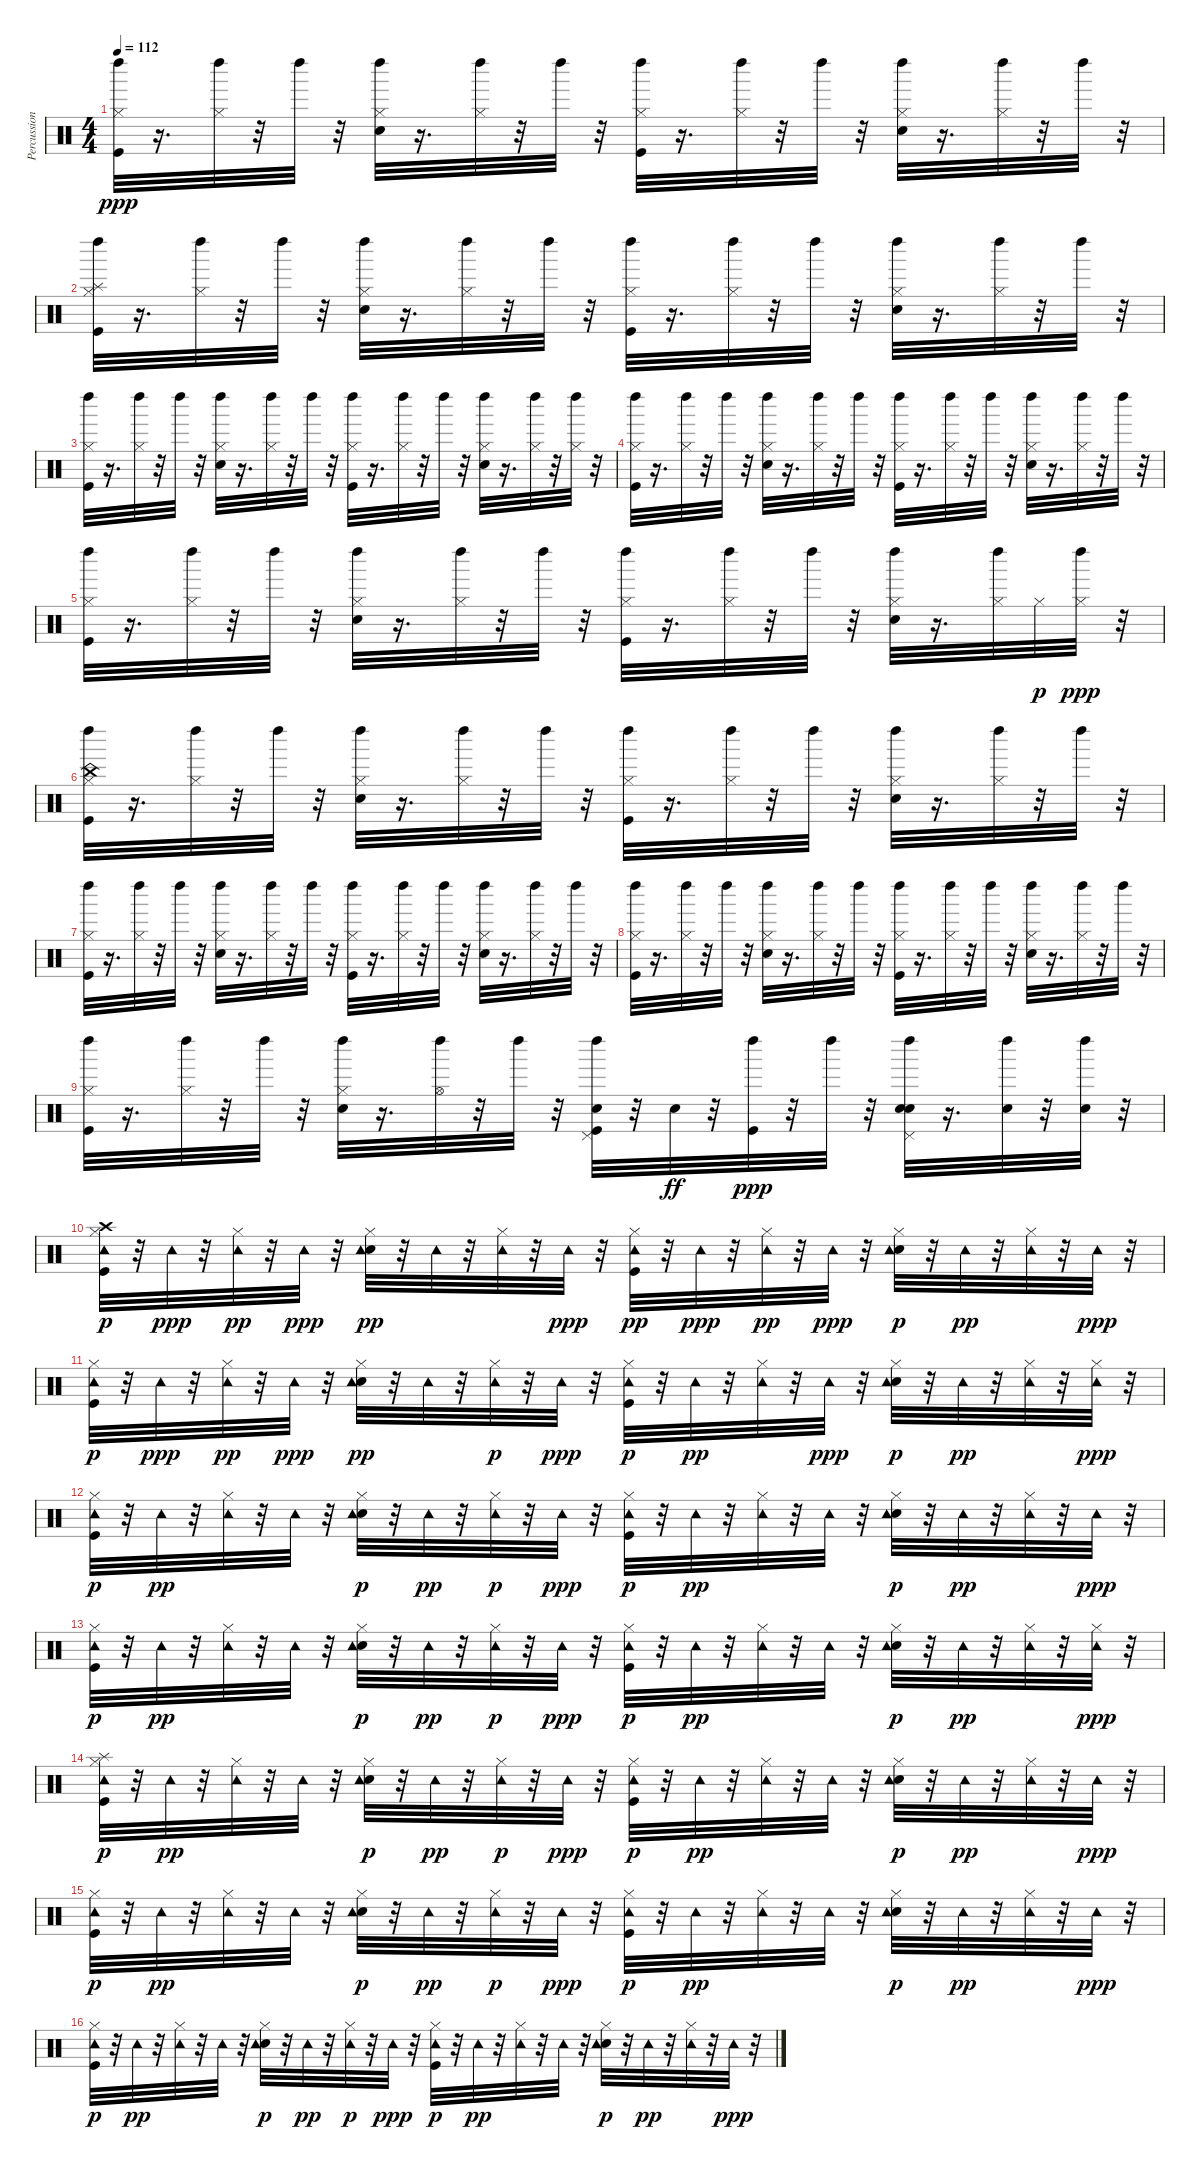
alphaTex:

\track ("Percussioni" "Percussion") {instrument percussion}
\staff {score}
\articulation defaults
\ts (4 4)
\tempo 112
\clef neutral
\ks c
("Kick (hit)" "Hi-Hat (closed)" "Left Maraca (hit)").32{dy ppp} r.16{d} ("Hi-Hat (closed)" "Left Maraca (hit)").32 r.32 "Left Maraca (hit)".32 r.32 ("Electric Snare (hit)" "Hi-Hat (closed)" "Left Maraca (hit)").32 r.16{d} ("Hi-Hat (closed)" "Left Maraca (hit)").32 r.32 "Left Maraca (hit)".32 r.32 ("Kick (hit)" "Hi-Hat (closed)" "Left Maraca (hit)").32 r.16{d} ("Hi-Hat (closed)" "Left Maraca (hit)").32 r.32 "Left Maraca (hit)".32 r.32 ("Electric Snare (hit)" "Hi-Hat (closed)" "Left Maraca (hit)").32 r.16{d} ("Hi-Hat (closed)" "Left Maraca (hit)").32 r.32 "Left Maraca (hit)".32 r.32 |
("Kick (hit)" "Hi-Hat (closed)" "Splash (hit)" "Left Maraca (hit)").32 r.16{d} ("Hi-Hat (closed)" "Left Maraca (hit)").32 r.32 "Left Maraca (hit)".32 r.32 ("Electric Snare (hit)" "Hi-Hat (closed)" "Left Maraca (hit)").32 r.16{d} ("Hi-Hat (closed)" "Left Maraca (hit)").32 r.32 "Left Maraca (hit)".32 r.32 ("Kick (hit)" "Hi-Hat (closed)" "Left Maraca (hit)").32 r.16{d} ("Hi-Hat (closed)" "Left Maraca (hit)").32 r.32 "Left Maraca (hit)".32 r.32 ("Electric Snare (hit)" "Hi-Hat (closed)" "Left Maraca (hit)").32 r.16{d} ("Hi-Hat (closed)" "Left Maraca (hit)").32 r.32 "Left Maraca (hit)".32 r.32 |
("Kick (hit)" "Hi-Hat (closed)" "Left Maraca (hit)").32 r.16{d} ("Hi-Hat (closed)" "Left Maraca (hit)").32 r.32 "Left Maraca (hit)".32 r.32 ("Electric Snare (hit)" "Hi-Hat (closed)" "Left Maraca (hit)").32 r.16{d} ("Hi-Hat (closed)" "Left Maraca (hit)").32 r.32 "Left Maraca (hit)".32 r.32 ("Kick (hit)" "Hi-Hat (closed)" "Left Maraca (hit)").32 r.16{d} ("Hi-Hat (closed)" "Left Maraca (hit)").32 r.32 "Left Maraca (hit)".32 r.32 ("Electric Snare (hit)" "Hi-Hat (closed)" "Left Maraca (hit)").32 r.16{d} ("Hi-Hat (closed)" "Left Maraca (hit)").32 r.32 ("Hi-Hat (closed)" "Left Maraca (hit)").32 r.32 |
("Kick (hit)" "Hi-Hat (closed)" "Left Maraca (hit)").32 r.16{d} ("Hi-Hat (closed)" "Left Maraca (hit)").32 r.32 "Left Maraca (hit)".32 r.32 ("Electric Snare (hit)" "Hi-Hat (closed)" "Left Maraca (hit)").32 r.16{d} ("Hi-Hat (closed)" "Left Maraca (hit)").32 r.32 "Left Maraca (hit)".32 r.32 ("Kick (hit)" "Hi-Hat (closed)" "Left Maraca (hit)").32 r.16{d} ("Hi-Hat (closed)" "Left Maraca (hit)").32 r.32 "Left Maraca (hit)".32 r.32 ("Electric Snare (hit)" "Hi-Hat (closed)" "Left Maraca (hit)").32 r.16{d} ("Hi-Hat (closed)" "Left Maraca (hit)").32 r.32 "Left Maraca (hit)".32 r.32 |
("Kick (hit)" "Hi-Hat (closed)" "Left Maraca (hit)").32 r.16{d} ("Hi-Hat (closed)" "Left Maraca (hit)").32 r.32 "Left Maraca (hit)".32 r.32 ("Electric Snare (hit)" "Hi-Hat (closed)" "Left Maraca (hit)").32 r.16{d} ("Hi-Hat (closed)" "Left Maraca (hit)").32 r.32 "Left Maraca (hit)".32 r.32 ("Kick (hit)" "Hi-Hat (closed)" "Left Maraca (hit)").32 r.16{d} ("Hi-Hat (closed)" "Left Maraca (hit)").32 r.32 "Left Maraca (hit)".32 r.32 ("Electric Snare (hit)" "Hi-Hat (closed)" "Left Maraca (hit)").32 r.16{d} ("Hi-Hat (closed)" "Left Maraca (hit)").32 "Hi-Hat (closed)".32{dy p} ("Hi-Hat (closed)" "Left Maraca (hit)").32{dy ppp} r.32 |
("Kick (hit)" "Hi-Hat (closed)" "China (hit)" "Left Maraca (hit)").32 r.16{d} ("Hi-Hat (closed)" "Left Maraca (hit)").32 r.32 "Left Maraca (hit)".32 r.32 ("Electric Snare (hit)" "Hi-Hat (closed)" "Left Maraca (hit)").32 r.16{d} ("Hi-Hat (closed)" "Left Maraca (hit)").32 r.32 "Left Maraca (hit)".32 r.32 ("Kick (hit)" "Hi-Hat (closed)" "Left Maraca (hit)").32 r.16{d} ("Hi-Hat (closed)" "Left Maraca (hit)").32 r.32 "Left Maraca (hit)".32 r.32 ("Electric Snare (hit)" "Hi-Hat (closed)" "Left Maraca (hit)").32 r.16{d} ("Hi-Hat (closed)" "Left Maraca (hit)").32 r.32 "Left Maraca (hit)".32 r.32 |
("Kick (hit)" "Hi-Hat (closed)" "Left Maraca (hit)").32 r.16{d} ("Hi-Hat (closed)" "Left Maraca (hit)").32 r.32 "Left Maraca (hit)".32 r.32 ("Electric Snare (hit)" "Hi-Hat (closed)" "Left Maraca (hit)").32 r.16{d} ("Hi-Hat (closed)" "Left Maraca (hit)").32 r.32 "Left Maraca (hit)".32 r.32 ("Kick (hit)" "Hi-Hat (closed)" "Left Maraca (hit)").32 r.16{d} ("Hi-Hat (closed)" "Left Maraca (hit)").32 r.32 "Left Maraca (hit)".32 r.32 ("Electric Snare (hit)" "Hi-Hat (closed)" "Left Maraca (hit)").32 r.16{d} ("Hi-Hat (closed)" "Left Maraca (hit)").32 r.32 "Left Maraca (hit)".32 r.32 |
("Kick (hit)" "Hi-Hat (closed)" "Left Maraca (hit)").32 r.16{d} ("Hi-Hat (closed)" "Left Maraca (hit)").32 r.32 "Left Maraca (hit)".32 r.32 ("Electric Snare (hit)" "Hi-Hat (closed)" "Left Maraca (hit)").32 r.16{d} ("Hi-Hat (closed)" "Left Maraca (hit)").32 r.32 "Left Maraca (hit)".32 r.32 ("Kick (hit)" "Hi-Hat (closed)" "Left Maraca (hit)").32 r.16{d} ("Hi-Hat (closed)" "Left Maraca (hit)").32 r.32 "Left Maraca (hit)".32 r.32 ("Electric Snare (hit)" "Hi-Hat (closed)" "Left Maraca (hit)").32 r.16{d} ("Hi-Hat (closed)" "Left Maraca (hit)").32 r.32 "Left Maraca (hit)".32 r.32 |
("Kick (hit)" "Hi-Hat (closed)" "Left Maraca (hit)").32 r.16{d} ("Hi-Hat (closed)" "Left Maraca (hit)").32 r.32 "Left Maraca (hit)".32 r.32 ("Electric Snare (hit)" "Hi-Hat (closed)" "Left Maraca (hit)").32 r.16{d} ("Hi-Hat (open)" "Left Maraca (hit)").32 r.32 "Left Maraca (hit)".32 r.32 ("Kick (hit)" "Electric Snare (hit)" "Pedal Hi-Hat (hit)" "Left Maraca (hit)").32 r.32 "Electric Snare (hit)".32{dy ff} r.32 ("Kick (hit)" "Left Maraca (hit)").32{dy ppp} r.32 "Left Maraca (hit)".32 r.32 ("Electric Snare (hit)" "Electric Snare (hit)" "Pedal Hi-Hat (hit)" "Left Maraca (hit)").32 r.16{d} ("Electric Snare (hit)" "Left Maraca (hit)").32 r.32 ("Electric Snare (hit)" "Left Maraca (hit)").32 r.32 |
("Kick (hit)" "Hi-Hat (closed)" "Crash high (hit)" "Tambourine (hit)").32{dy p} r.32 "Tambourine (hit)".32{dy ppp} r.32 ("Hi-Hat (closed)" "Tambourine (hit)").32{dy pp} r.32 "Tambourine (hit)".32{dy ppp} r.32 ("Electric Snare (hit)" "Hi-Hat (closed)" "Tambourine (hit)").32{dy pp} r.32 "Tambourine (hit)".32 r.32 ("Hi-Hat (closed)" "Tambourine (hit)").32 r.32 "Tambourine (hit)".32{dy ppp} r.32 ("Kick (hit)" "Hi-Hat (closed)" "Tambourine (hit)").32{dy pp} r.32 "Tambourine (hit)".32{dy ppp} r.32 ("Hi-Hat (closed)" "Tambourine (hit)").32{dy pp} r.32 "Tambourine (hit)".32{dy ppp} r.32 ("Electric Snare (hit)" "Hi-Hat (closed)" "Tambourine (hit)").32{dy p} r.32 "Tambourine (hit)".32{dy pp} r.32 ("Hi-Hat (closed)" "Tambourine (hit)").32 r.32 "Tambourine (hit)".32{dy ppp} r.32 |
("Kick (hit)" "Hi-Hat (closed)" "Tambourine (hit)").32{dy p} r.32 "Tambourine (hit)".32{dy ppp} r.32 ("Hi-Hat (closed)" "Tambourine (hit)").32{dy pp} r.32 "Tambourine (hit)".32{dy ppp} r.32 ("Electric Snare (hit)" "Hi-Hat (closed)" "Tambourine (hit)").32{dy pp} r.32 "Tambourine (hit)".32 r.32 ("Hi-Hat (closed)" "Tambourine (hit)").32{dy p} r.32 "Tambourine (hit)".32{dy ppp} r.32 ("Kick (hit)" "Hi-Hat (closed)" "Tambourine (hit)").32{dy p} r.32 "Tambourine (hit)".32{dy pp} r.32 ("Hi-Hat (closed)" "Tambourine (hit)").32 r.32 "Tambourine (hit)".32{dy ppp} r.32 ("Electric Snare (hit)" "Hi-Hat (closed)" "Tambourine (hit)").32{dy p} r.32 "Tambourine (hit)".32{dy pp} r.32 ("Hi-Hat (closed)" "Tambourine (hit)").32 r.32 ("Hi-Hat (closed)" "Tambourine (hit)").32{dy ppp} r.32 |
("Kick (hit)" "Hi-Hat (closed)" "Tambourine (hit)").32{dy p} r.32 "Tambourine (hit)".32{dy pp} r.32 ("Hi-Hat (closed)" "Tambourine (hit)").32 r.32 "Tambourine (hit)".32 r.32 ("Electric Snare (hit)" "Hi-Hat (closed)" "Tambourine (hit)").32{dy p} r.32 "Tambourine (hit)".32{dy pp} r.32 ("Hi-Hat (closed)" "Tambourine (hit)").32{dy p} r.32 "Tambourine (hit)".32{dy ppp} r.32 ("Kick (hit)" "Hi-Hat (closed)" "Tambourine (hit)").32{dy p} r.32 "Tambourine (hit)".32{dy pp} r.32 ("Hi-Hat (closed)" "Tambourine (hit)").32 r.32 "Tambourine (hit)".32 r.32 ("Electric Snare (hit)" "Hi-Hat (closed)" "Tambourine (hit)").32{dy p} r.32 "Tambourine (hit)".32{dy pp} r.32 ("Hi-Hat (closed)" "Tambourine (hit)").32 r.32 "Tambourine (hit)".32{dy ppp} r.32 |
("Kick (hit)" "Hi-Hat (closed)" "Tambourine (hit)").32{dy p} r.32 "Tambourine (hit)".32{dy pp} r.32 ("Hi-Hat (closed)" "Tambourine (hit)").32 r.32 "Tambourine (hit)".32 r.32 ("Electric Snare (hit)" "Hi-Hat (closed)" "Tambourine (hit)").32{dy p} r.32 "Tambourine (hit)".32{dy pp} r.32 ("Hi-Hat (closed)" "Tambourine (hit)").32{dy p} r.32 "Tambourine (hit)".32{dy ppp} r.32 ("Kick (hit)" "Hi-Hat (closed)" "Tambourine (hit)").32{dy p} r.32 "Tambourine (hit)".32{dy pp} r.32 ("Hi-Hat (closed)" "Tambourine (hit)").32 r.32 "Tambourine (hit)".32 r.32 ("Electric Snare (hit)" "Hi-Hat (closed)" "Tambourine (hit)").32{dy p} r.32 "Tambourine (hit)".32{dy pp} r.32 ("Hi-Hat (closed)" "Tambourine (hit)").32 r.32 ("Hi-Hat (closed)" "Tambourine (hit)").32{dy ppp} r.32 |
("Kick (hit)" "Hi-Hat (closed)" "Tambourine (hit)" "Splash (hit)").32{dy p} r.32 "Tambourine (hit)".32{dy pp} r.32 ("Hi-Hat (closed)" "Tambourine (hit)").32 r.32 "Tambourine (hit)".32 r.32 ("Electric Snare (hit)" "Hi-Hat (closed)" "Tambourine (hit)").32{dy p} r.32 "Tambourine (hit)".32{dy pp} r.32 ("Hi-Hat (closed)" "Tambourine (hit)").32{dy p} r.32 "Tambourine (hit)".32{dy ppp} r.32 ("Kick (hit)" "Hi-Hat (closed)" "Tambourine (hit)").32{dy p} r.32 "Tambourine (hit)".32{dy pp} r.32 ("Hi-Hat (closed)" "Tambourine (hit)").32 r.32 "Tambourine (hit)".32 r.32 ("Electric Snare (hit)" "Hi-Hat (closed)" "Tambourine (hit)").32{dy p} r.32 "Tambourine (hit)".32{dy pp} r.32 ("Hi-Hat (closed)" "Tambourine (hit)").32 r.32 "Tambourine (hit)".32{dy ppp} r.32 |
("Kick (hit)" "Hi-Hat (closed)" "Tambourine (hit)").32{dy p} r.32 "Tambourine (hit)".32{dy pp} r.32 ("Hi-Hat (closed)" "Tambourine (hit)").32 r.32 "Tambourine (hit)".32 r.32 ("Electric Snare (hit)" "Hi-Hat (closed)" "Tambourine (hit)").32{dy p} r.32 "Tambourine (hit)".32{dy pp} r.32 ("Hi-Hat (closed)" "Tambourine (hit)").32{dy p} r.32 "Tambourine (hit)".32{dy ppp} r.32 ("Kick (hit)" "Hi-Hat (closed)" "Tambourine (hit)").32{dy p} r.32 "Tambourine (hit)".32{dy pp} r.32 ("Hi-Hat (closed)" "Tambourine (hit)").32 r.32 "Tambourine (hit)".32 r.32 ("Electric Snare (hit)" "Hi-Hat (closed)" "Tambourine (hit)").32{dy p} r.32 "Tambourine (hit)".32{dy pp} r.32 ("Hi-Hat (closed)" "Tambourine (hit)").32 r.32 "Tambourine (hit)".32{dy ppp} r.32 |
("Kick (hit)" "Hi-Hat (closed)" "Tambourine (hit)").32{dy p} r.32 "Tambourine (hit)".32{dy pp} r.32 ("Hi-Hat (closed)" "Tambourine (hit)").32 r.32 "Tambourine (hit)".32 r.32 ("Electric Snare (hit)" "Hi-Hat (closed)" "Tambourine (hit)").32{dy p} r.32 "Tambourine (hit)".32{dy pp} r.32 ("Hi-Hat (closed)" "Tambourine (hit)").32{dy p} r.32 "Tambourine (hit)".32{dy ppp} r.32 ("Kick (hit)" "Hi-Hat (closed)" "Tambourine (hit)").32{dy p} r.32 "Tambourine (hit)".32{dy pp} r.32 ("Hi-Hat (closed)" "Tambourine (hit)").32 r.32 "Tambourine (hit)".32 r.32 ("Electric Snare (hit)" "Hi-Hat (closed)" "Tambourine (hit)").32{dy p} r.32 "Tambourine (hit)".32{dy pp} r.32 ("Hi-Hat (closed)" "Tambourine (hit)").32 r.32 "Tambourine (hit)".32{dy ppp} r.32
